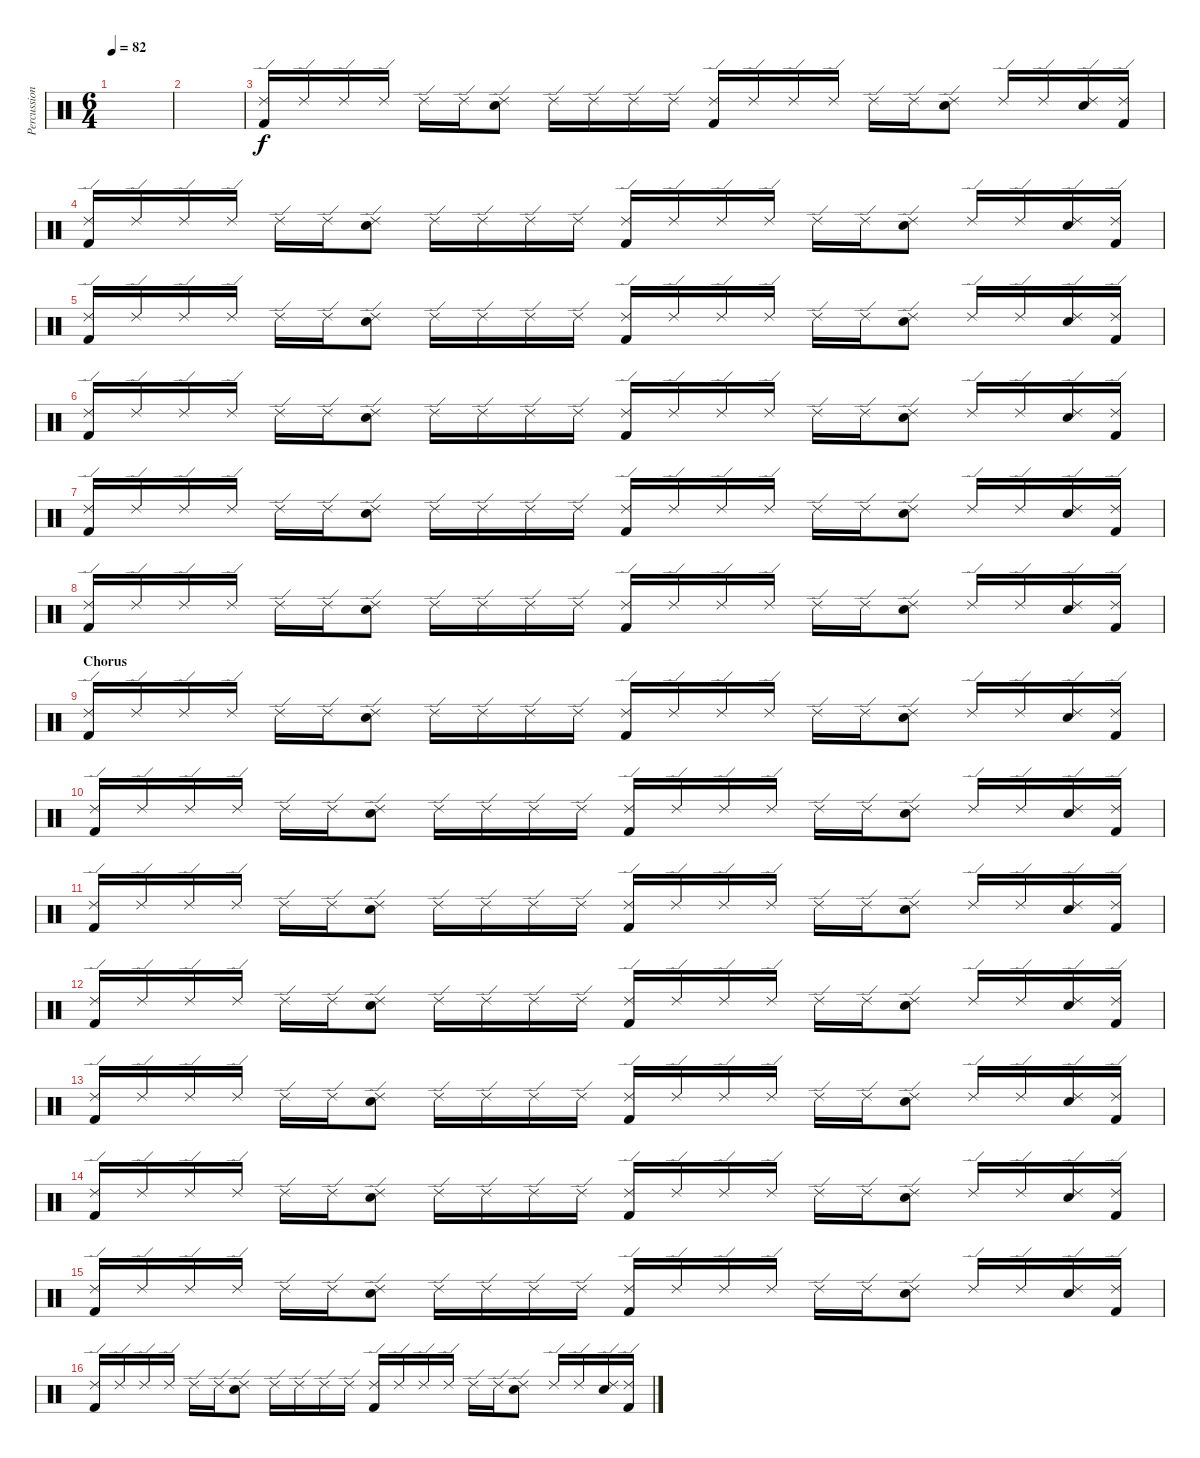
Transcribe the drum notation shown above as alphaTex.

\track ("Percussion" "Percussion") {instrument percussion}
\staff {score}
\articulation defaults
\ts (6 4)
\tempo 82
\clef neutral
\ks c
|
|
("Ride (edge) 2" "Kick (hit) 2").16 "Ride (edge) 2".16 "Ride (edge) 2".16 "Ride (edge) 2".16 "Ride (edge) 2".16 "Ride (edge) 2".16 ("Ride (edge) 2" "Electric Snare (hit)").8 "Ride (edge) 2".16 "Ride (edge) 2".16 "Ride (edge) 2".16 "Ride (edge) 2".16 ("Ride (edge) 2" "Kick (hit) 2").16 "Ride (edge) 2".16 "Ride (edge) 2".16 "Ride (edge) 2".16 "Ride (edge) 2".16 "Ride (edge) 2".16 ("Ride (edge) 2" "Electric Snare (hit)").8 "Ride (edge) 2".16 "Ride (edge) 2".16 ("Ride (edge) 2" "Electric Snare (hit)").16 ("Ride (edge) 2" "Kick (hit) 2").16 |
("Ride (edge) 2" "Kick (hit) 2").16 "Ride (edge) 2".16 "Ride (edge) 2".16 "Ride (edge) 2".16 "Ride (edge) 2".16 "Ride (edge) 2".16 ("Ride (edge) 2" "Electric Snare (hit)").8 "Ride (edge) 2".16 "Ride (edge) 2".16 "Ride (edge) 2".16 "Ride (edge) 2".16 ("Ride (edge) 2" "Kick (hit) 2").16 "Ride (edge) 2".16 "Ride (edge) 2".16 "Ride (edge) 2".16 "Ride (edge) 2".16 "Ride (edge) 2".16 ("Ride (edge) 2" "Electric Snare (hit)").8 "Ride (edge) 2".16 "Ride (edge) 2".16 ("Ride (edge) 2" "Electric Snare (hit)").16 ("Ride (edge) 2" "Kick (hit) 2").16 |
("Ride (edge) 2" "Kick (hit) 2").16 "Ride (edge) 2".16 "Ride (edge) 2".16 "Ride (edge) 2".16 "Ride (edge) 2".16 "Ride (edge) 2".16 ("Ride (edge) 2" "Electric Snare (hit)").8 "Ride (edge) 2".16 "Ride (edge) 2".16 "Ride (edge) 2".16 "Ride (edge) 2".16 ("Ride (edge) 2" "Kick (hit) 2").16 "Ride (edge) 2".16 "Ride (edge) 2".16 "Ride (edge) 2".16 "Ride (edge) 2".16 "Ride (edge) 2".16 ("Ride (edge) 2" "Electric Snare (hit)").8 "Ride (edge) 2".16 "Ride (edge) 2".16 ("Ride (edge) 2" "Electric Snare (hit)").16 ("Ride (edge) 2" "Kick (hit) 2").16 |
("Ride (edge) 2" "Kick (hit) 2").16 "Ride (edge) 2".16 "Ride (edge) 2".16 "Ride (edge) 2".16 "Ride (edge) 2".16 "Ride (edge) 2".16 ("Ride (edge) 2" "Electric Snare (hit)").8 "Ride (edge) 2".16 "Ride (edge) 2".16 "Ride (edge) 2".16 "Ride (edge) 2".16 ("Ride (edge) 2" "Kick (hit) 2").16 "Ride (edge) 2".16 "Ride (edge) 2".16 "Ride (edge) 2".16 "Ride (edge) 2".16 "Ride (edge) 2".16 ("Ride (edge) 2" "Electric Snare (hit)").8 "Ride (edge) 2".16 "Ride (edge) 2".16 ("Ride (edge) 2" "Electric Snare (hit)").16 ("Ride (edge) 2" "Kick (hit) 2").16 |
("Ride (edge) 2" "Kick (hit) 2").16 "Ride (edge) 2".16 "Ride (edge) 2".16 "Ride (edge) 2".16 "Ride (edge) 2".16 "Ride (edge) 2".16 ("Ride (edge) 2" "Electric Snare (hit)").8 "Ride (edge) 2".16 "Ride (edge) 2".16 "Ride (edge) 2".16 "Ride (edge) 2".16 ("Ride (edge) 2" "Kick (hit) 2").16 "Ride (edge) 2".16 "Ride (edge) 2".16 "Ride (edge) 2".16 "Ride (edge) 2".16 "Ride (edge) 2".16 ("Ride (edge) 2" "Electric Snare (hit)").8 "Ride (edge) 2".16 "Ride (edge) 2".16 ("Ride (edge) 2" "Electric Snare (hit)").16 ("Ride (edge) 2" "Kick (hit) 2").16 |
("Ride (edge) 2" "Kick (hit) 2").16 "Ride (edge) 2".16 "Ride (edge) 2".16 "Ride (edge) 2".16 "Ride (edge) 2".16 "Ride (edge) 2".16 ("Ride (edge) 2" "Electric Snare (hit)").8 "Ride (edge) 2".16 "Ride (edge) 2".16 "Ride (edge) 2".16 "Ride (edge) 2".16 ("Ride (edge) 2" "Kick (hit) 2").16 "Ride (edge) 2".16 "Ride (edge) 2".16 "Ride (edge) 2".16 "Ride (edge) 2".16 "Ride (edge) 2".16 ("Ride (edge) 2" "Electric Snare (hit)").8 "Ride (edge) 2".16 "Ride (edge) 2".16 ("Ride (edge) 2" "Electric Snare (hit)").16 ("Ride (edge) 2" "Kick (hit) 2").16 |
\section ("" "Chorus")
("Ride (edge) 2" "Kick (hit) 2").16 "Ride (edge) 2".16 "Ride (edge) 2".16 "Ride (edge) 2".16 "Ride (edge) 2".16 "Ride (edge) 2".16 ("Ride (edge) 2" "Electric Snare (hit)").8 "Ride (edge) 2".16 "Ride (edge) 2".16 "Ride (edge) 2".16 "Ride (edge) 2".16 ("Ride (edge) 2" "Kick (hit) 2").16 "Ride (edge) 2".16 "Ride (edge) 2".16 "Ride (edge) 2".16 "Ride (edge) 2".16 "Ride (edge) 2".16 ("Ride (edge) 2" "Electric Snare (hit)").8 "Ride (edge) 2".16 "Ride (edge) 2".16 ("Ride (edge) 2" "Electric Snare (hit)").16 ("Ride (edge) 2" "Kick (hit) 2").16 |
("Ride (edge) 2" "Kick (hit) 2").16 "Ride (edge) 2".16 "Ride (edge) 2".16 "Ride (edge) 2".16 "Ride (edge) 2".16 "Ride (edge) 2".16 ("Ride (edge) 2" "Electric Snare (hit)").8 "Ride (edge) 2".16 "Ride (edge) 2".16 "Ride (edge) 2".16 "Ride (edge) 2".16 ("Ride (edge) 2" "Kick (hit) 2").16 "Ride (edge) 2".16 "Ride (edge) 2".16 "Ride (edge) 2".16 "Ride (edge) 2".16 "Ride (edge) 2".16 ("Ride (edge) 2" "Electric Snare (hit)").8 "Ride (edge) 2".16 "Ride (edge) 2".16 ("Ride (edge) 2" "Electric Snare (hit)").16 ("Ride (edge) 2" "Kick (hit) 2").16 |
("Ride (edge) 2" "Kick (hit) 2").16 "Ride (edge) 2".16 "Ride (edge) 2".16 "Ride (edge) 2".16 "Ride (edge) 2".16 "Ride (edge) 2".16 ("Ride (edge) 2" "Electric Snare (hit)").8 "Ride (edge) 2".16 "Ride (edge) 2".16 "Ride (edge) 2".16 "Ride (edge) 2".16 ("Ride (edge) 2" "Kick (hit) 2").16 "Ride (edge) 2".16 "Ride (edge) 2".16 "Ride (edge) 2".16 "Ride (edge) 2".16 "Ride (edge) 2".16 ("Ride (edge) 2" "Electric Snare (hit)").8 "Ride (edge) 2".16 "Ride (edge) 2".16 ("Ride (edge) 2" "Electric Snare (hit)").16 ("Ride (edge) 2" "Kick (hit) 2").16 |
("Ride (edge) 2" "Kick (hit) 2").16 "Ride (edge) 2".16 "Ride (edge) 2".16 "Ride (edge) 2".16 "Ride (edge) 2".16 "Ride (edge) 2".16 ("Ride (edge) 2" "Electric Snare (hit)").8 "Ride (edge) 2".16 "Ride (edge) 2".16 "Ride (edge) 2".16 "Ride (edge) 2".16 ("Ride (edge) 2" "Kick (hit) 2").16 "Ride (edge) 2".16 "Ride (edge) 2".16 "Ride (edge) 2".16 "Ride (edge) 2".16 "Ride (edge) 2".16 ("Ride (edge) 2" "Electric Snare (hit)").8 "Ride (edge) 2".16 "Ride (edge) 2".16 ("Ride (edge) 2" "Electric Snare (hit)").16 ("Ride (edge) 2" "Kick (hit) 2").16 |
("Ride (edge) 2" "Kick (hit) 2").16 "Ride (edge) 2".16 "Ride (edge) 2".16 "Ride (edge) 2".16 "Ride (edge) 2".16 "Ride (edge) 2".16 ("Ride (edge) 2" "Electric Snare (hit)").8 "Ride (edge) 2".16 "Ride (edge) 2".16 "Ride (edge) 2".16 "Ride (edge) 2".16 ("Ride (edge) 2" "Kick (hit) 2").16 "Ride (edge) 2".16 "Ride (edge) 2".16 "Ride (edge) 2".16 "Ride (edge) 2".16 "Ride (edge) 2".16 ("Ride (edge) 2" "Electric Snare (hit)").8 "Ride (edge) 2".16 "Ride (edge) 2".16 ("Ride (edge) 2" "Electric Snare (hit)").16 ("Ride (edge) 2" "Kick (hit) 2").16 |
("Ride (edge) 2" "Kick (hit) 2").16 "Ride (edge) 2".16 "Ride (edge) 2".16 "Ride (edge) 2".16 "Ride (edge) 2".16 "Ride (edge) 2".16 ("Ride (edge) 2" "Electric Snare (hit)").8 "Ride (edge) 2".16 "Ride (edge) 2".16 "Ride (edge) 2".16 "Ride (edge) 2".16 ("Ride (edge) 2" "Kick (hit) 2").16 "Ride (edge) 2".16 "Ride (edge) 2".16 "Ride (edge) 2".16 "Ride (edge) 2".16 "Ride (edge) 2".16 ("Ride (edge) 2" "Electric Snare (hit)").8 "Ride (edge) 2".16 "Ride (edge) 2".16 ("Ride (edge) 2" "Electric Snare (hit)").16 ("Ride (edge) 2" "Kick (hit) 2").16 |
("Ride (edge) 2" "Kick (hit) 2").16 "Ride (edge) 2".16 "Ride (edge) 2".16 "Ride (edge) 2".16 "Ride (edge) 2".16 "Ride (edge) 2".16 ("Ride (edge) 2" "Electric Snare (hit)").8 "Ride (edge) 2".16 "Ride (edge) 2".16 "Ride (edge) 2".16 "Ride (edge) 2".16 ("Ride (edge) 2" "Kick (hit) 2").16 "Ride (edge) 2".16 "Ride (edge) 2".16 "Ride (edge) 2".16 "Ride (edge) 2".16 "Ride (edge) 2".16 ("Ride (edge) 2" "Electric Snare (hit)").8 "Ride (edge) 2".16 "Ride (edge) 2".16 ("Ride (edge) 2" "Electric Snare (hit)").16 ("Ride (edge) 2" "Kick (hit) 2").16 |
("Ride (edge) 2" "Kick (hit) 2").16 "Ride (edge) 2".16 "Ride (edge) 2".16 "Ride (edge) 2".16 "Ride (edge) 2".16 "Ride (edge) 2".16 ("Ride (edge) 2" "Electric Snare (hit)").8 "Ride (edge) 2".16 "Ride (edge) 2".16 "Ride (edge) 2".16 "Ride (edge) 2".16 ("Ride (edge) 2" "Kick (hit) 2").16 "Ride (edge) 2".16 "Ride (edge) 2".16 "Ride (edge) 2".16 "Ride (edge) 2".16 "Ride (edge) 2".16 ("Ride (edge) 2" "Electric Snare (hit)").8 "Ride (edge) 2".16 "Ride (edge) 2".16 ("Ride (edge) 2" "Electric Snare (hit)").16 ("Ride (edge) 2" "Kick (hit) 2").16
